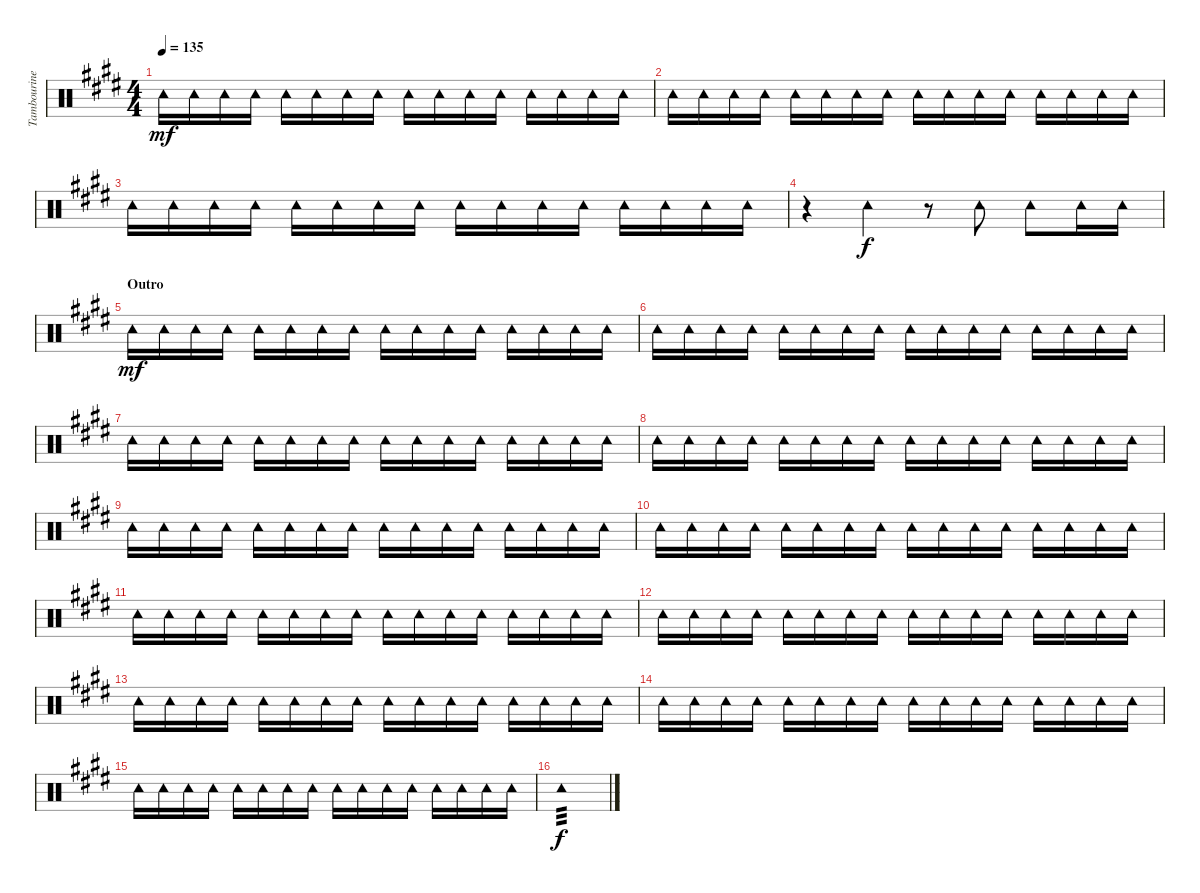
\track ("Tambourine" "Tambourine") {instrument percussion}
\staff {score}
\articulation defaults
\ts (4 4)
\tempo 135
\clef neutral
\ks e "Tambourine (hit)".16{dy mf} "Tambourine (hit)".16 "Tambourine (hit)".16 "Tambourine (hit)".16 "Tambourine (hit)".16 "Tambourine (hit)".16 "Tambourine (hit)".16 "Tambourine (hit)".16 "Tambourine (hit)".16 "Tambourine (hit)".16 "Tambourine (hit)".16 "Tambourine (hit)".16 "Tambourine (hit)".16 "Tambourine (hit)".16 "Tambourine (hit)".16 "Tambourine (hit)".16
|
"Tambourine (hit)".16 "Tambourine (hit)".16 "Tambourine (hit)".16 "Tambourine (hit)".16 "Tambourine (hit)".16 "Tambourine (hit)".16 "Tambourine (hit)".16 "Tambourine (hit)".16 "Tambourine (hit)".16 "Tambourine (hit)".16 "Tambourine (hit)".16 "Tambourine (hit)".16 "Tambourine (hit)".16 "Tambourine (hit)".16 "Tambourine (hit)".16 "Tambourine (hit)".16 |
"Tambourine (hit)".16 "Tambourine (hit)".16 "Tambourine (hit)".16 "Tambourine (hit)".16 "Tambourine (hit)".16 "Tambourine (hit)".16 "Tambourine (hit)".16 "Tambourine (hit)".16 "Tambourine (hit)".16 "Tambourine (hit)".16 "Tambourine (hit)".16 "Tambourine (hit)".16 "Tambourine (hit)".16 "Tambourine (hit)".16 "Tambourine (hit)".16 "Tambourine (hit)".16 |
r.4 "Tambourine (hit)".4{dy f} r.8 "Tambourine (hit)".8 "Tambourine (hit)".8 "Tambourine (hit)".16 "Tambourine (hit)".16 |
\section ("" "Outro")
"Tambourine (hit)".16{dy mf} "Tambourine (hit)".16 "Tambourine (hit)".16 "Tambourine (hit)".16 "Tambourine (hit)".16 "Tambourine (hit)".16 "Tambourine (hit)".16 "Tambourine (hit)".16 "Tambourine (hit)".16 "Tambourine (hit)".16 "Tambourine (hit)".16 "Tambourine (hit)".16 "Tambourine (hit)".16 "Tambourine (hit)".16 "Tambourine (hit)".16 "Tambourine (hit)".16 |
"Tambourine (hit)".16 "Tambourine (hit)".16 "Tambourine (hit)".16 "Tambourine (hit)".16 "Tambourine (hit)".16 "Tambourine (hit)".16 "Tambourine (hit)".16 "Tambourine (hit)".16 "Tambourine (hit)".16 "Tambourine (hit)".16 "Tambourine (hit)".16 "Tambourine (hit)".16 "Tambourine (hit)".16 "Tambourine (hit)".16 "Tambourine (hit)".16 "Tambourine (hit)".16 |
"Tambourine (hit)".16 "Tambourine (hit)".16 "Tambourine (hit)".16 "Tambourine (hit)".16 "Tambourine (hit)".16 "Tambourine (hit)".16 "Tambourine (hit)".16 "Tambourine (hit)".16 "Tambourine (hit)".16 "Tambourine (hit)".16 "Tambourine (hit)".16 "Tambourine (hit)".16 "Tambourine (hit)".16 "Tambourine (hit)".16 "Tambourine (hit)".16 "Tambourine (hit)".16 |
"Tambourine (hit)".16 "Tambourine (hit)".16 "Tambourine (hit)".16 "Tambourine (hit)".16 "Tambourine (hit)".16 "Tambourine (hit)".16 "Tambourine (hit)".16 "Tambourine (hit)".16 "Tambourine (hit)".16 "Tambourine (hit)".16 "Tambourine (hit)".16 "Tambourine (hit)".16 "Tambourine (hit)".16 "Tambourine (hit)".16 "Tambourine (hit)".16 "Tambourine (hit)".16 |
"Tambourine (hit)".16 "Tambourine (hit)".16 "Tambourine (hit)".16 "Tambourine (hit)".16 "Tambourine (hit)".16 "Tambourine (hit)".16 "Tambourine (hit)".16 "Tambourine (hit)".16 "Tambourine (hit)".16 "Tambourine (hit)".16 "Tambourine (hit)".16 "Tambourine (hit)".16 "Tambourine (hit)".16 "Tambourine (hit)".16 "Tambourine (hit)".16 "Tambourine (hit)".16 |
"Tambourine (hit)".16 "Tambourine (hit)".16 "Tambourine (hit)".16 "Tambourine (hit)".16 "Tambourine (hit)".16 "Tambourine (hit)".16 "Tambourine (hit)".16 "Tambourine (hit)".16 "Tambourine (hit)".16 "Tambourine (hit)".16 "Tambourine (hit)".16 "Tambourine (hit)".16 "Tambourine (hit)".16 "Tambourine (hit)".16 "Tambourine (hit)".16 "Tambourine (hit)".16 |
"Tambourine (hit)".16 "Tambourine (hit)".16 "Tambourine (hit)".16 "Tambourine (hit)".16 "Tambourine (hit)".16 "Tambourine (hit)".16 "Tambourine (hit)".16 "Tambourine (hit)".16 "Tambourine (hit)".16 "Tambourine (hit)".16 "Tambourine (hit)".16 "Tambourine (hit)".16 "Tambourine (hit)".16 "Tambourine (hit)".16 "Tambourine (hit)".16 "Tambourine (hit)".16 |
"Tambourine (hit)".16 "Tambourine (hit)".16 "Tambourine (hit)".16 "Tambourine (hit)".16 "Tambourine (hit)".16 "Tambourine (hit)".16 "Tambourine (hit)".16 "Tambourine (hit)".16 "Tambourine (hit)".16 "Tambourine (hit)".16 "Tambourine (hit)".16 "Tambourine (hit)".16 "Tambourine (hit)".16 "Tambourine (hit)".16 "Tambourine (hit)".16 "Tambourine (hit)".16 |
"Tambourine (hit)".16 "Tambourine (hit)".16 "Tambourine (hit)".16 "Tambourine (hit)".16 "Tambourine (hit)".16 "Tambourine (hit)".16 "Tambourine (hit)".16 "Tambourine (hit)".16 "Tambourine (hit)".16 "Tambourine (hit)".16 "Tambourine (hit)".16 "Tambourine (hit)".16 "Tambourine (hit)".16 "Tambourine (hit)".16 "Tambourine (hit)".16 "Tambourine (hit)".16 |
"Tambourine (hit)".16 "Tambourine (hit)".16 "Tambourine (hit)".16 "Tambourine (hit)".16 "Tambourine (hit)".16 "Tambourine (hit)".16 "Tambourine (hit)".16 "Tambourine (hit)".16 "Tambourine (hit)".16 "Tambourine (hit)".16 "Tambourine (hit)".16 "Tambourine (hit)".16 "Tambourine (hit)".16 "Tambourine (hit)".16 "Tambourine (hit)".16 "Tambourine (hit)".16 |
"Tambourine (hit)".16 "Tambourine (hit)".16 "Tambourine (hit)".16 "Tambourine (hit)".16 "Tambourine (hit)".16 "Tambourine (hit)".16 "Tambourine (hit)".16 "Tambourine (hit)".16 "Tambourine (hit)".16 "Tambourine (hit)".16 "Tambourine (hit)".16 "Tambourine (hit)".16 "Tambourine (hit)".16 "Tambourine (hit)".16 "Tambourine (hit)".16 "Tambourine (hit)".16 |
"Tambourine (hit)".1{tp 3 dy f}
